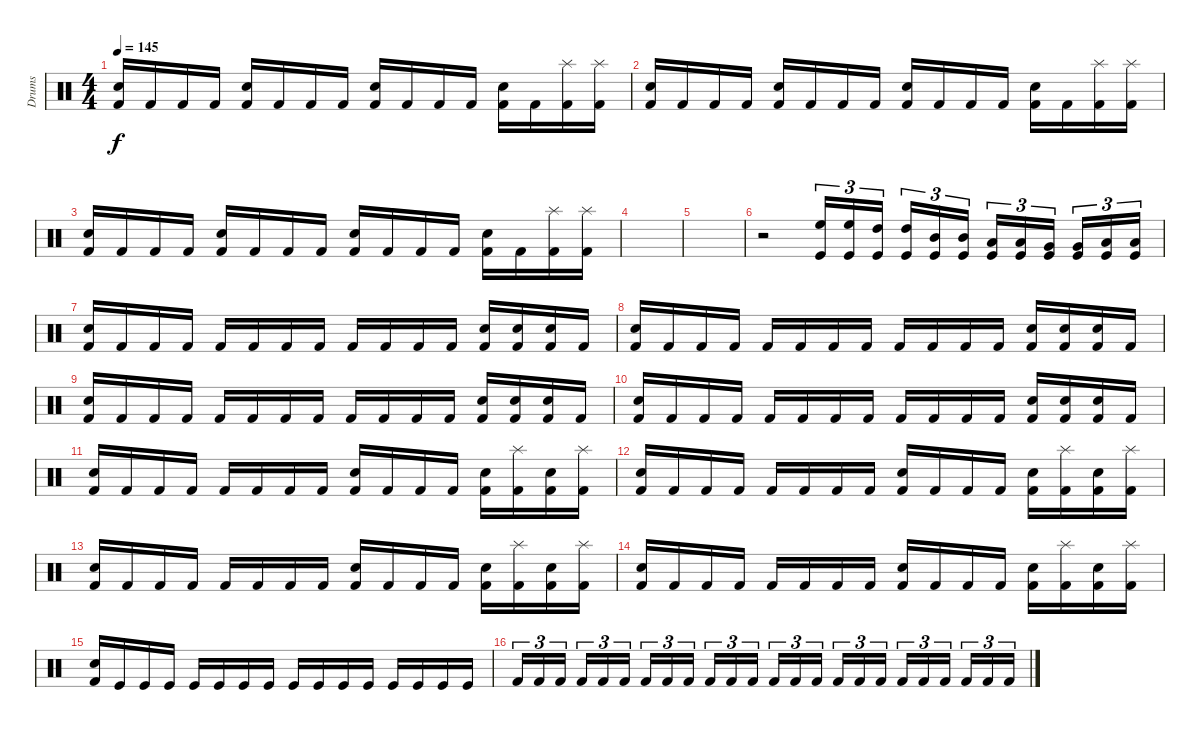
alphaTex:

\track ("Drums" "Drums") {instrument percussion}
\staff {score}
\articulation defaults
\ts (4 4)
\tempo 145
\clef neutral
\ks c
("Electric Snare (hit)" "Kick (hit) 2").16{dy f} "Kick (hit) 2".16 "Kick (hit) 2".16 "Kick (hit) 2".16 ("Electric Snare (hit)" "Kick (hit) 2").16 "Kick (hit) 2".16 "Kick (hit) 2".16 "Kick (hit) 2".16 ("Electric Snare (hit)" "Kick (hit) 2").16 "Kick (hit) 2".16 "Kick (hit) 2".16 "Kick (hit) 2".16 ("Electric Snare (hit)" "Kick (hit) 2").16 "Kick (hit) 2".16 ("Splash (hit)" "Kick (hit) 2").16 ("Splash (hit)" "Kick (hit) 2").16 |
("Electric Snare (hit)" "Kick (hit) 2").16 "Kick (hit) 2".16 "Kick (hit) 2".16 "Kick (hit) 2".16 ("Electric Snare (hit)" "Kick (hit) 2").16 "Kick (hit) 2".16 "Kick (hit) 2".16 "Kick (hit) 2".16 ("Electric Snare (hit)" "Kick (hit) 2").16 "Kick (hit) 2".16 "Kick (hit) 2".16 "Kick (hit) 2".16 ("Electric Snare (hit)" "Kick (hit) 2").16 "Kick (hit) 2".16 ("Splash (hit)" "Kick (hit) 2").16 ("Splash (hit)" "Kick (hit) 2").16 |
("Electric Snare (hit)" "Kick (hit) 2").16 "Kick (hit) 2".16 "Kick (hit) 2".16 "Kick (hit) 2".16 ("Electric Snare (hit)" "Kick (hit) 2").16 "Kick (hit) 2".16 "Kick (hit) 2".16 "Kick (hit) 2".16 ("Electric Snare (hit)" "Kick (hit) 2").16 "Kick (hit) 2".16 "Kick (hit) 2".16 "Kick (hit) 2".16 ("Electric Snare (hit)" "Kick (hit) 2").16 "Kick (hit) 2".16 ("Splash (hit)" "Kick (hit) 2").16 ("Splash (hit)" "Kick (hit) 2").16 |
|
|
r.2 ("High Floor Tom (hit)" "Kick (hit)").16{tu (3 2)} ("High Floor Tom (hit)" "Kick (hit)").16{tu (3 2)} ("High Tom (hit)" "Kick (hit)").16{tu (3 2) beam splitsecondary} ("High Tom (hit)" "Kick (hit)").16{tu (3 2)} ("Mid Tom (hit)" "Kick (hit)").16{tu (3 2)} ("Mid Tom (hit)" "Kick (hit)").16{tu (3 2)} ("Low Tom (hit)" "Kick (hit)").16{tu (3 2)} ("Low Tom (hit)" "Kick (hit)").16{tu (3 2)} ("Very Low Tom (hit)" "Kick (hit)").16{tu (3 2) beam splitsecondary} ("Very Low Tom (hit)" "Kick (hit)").16{tu (3 2)} ("Low Floor Tom (hit)" "Kick (hit)").16{tu (3 2)} ("Low Floor Tom (hit)" "Kick (hit)").16{tu (3 2)} |
("Electric Snare (hit)" "Kick (hit) 2").16 "Kick (hit) 2".16 "Kick (hit) 2".16 "Kick (hit) 2".16 "Kick (hit) 2".16 "Kick (hit) 2".16 "Kick (hit) 2".16 "Kick (hit) 2".16 "Kick (hit) 2".16 "Kick (hit) 2".16 "Kick (hit) 2".16 "Kick (hit) 2".16 ("Electric Snare (hit)" "Kick (hit) 2").16 ("Electric Snare (hit)" "Kick (hit) 2").16 ("Electric Snare (hit)" "Kick (hit) 2").16 "Kick (hit) 2".16 |
("Electric Snare (hit)" "Kick (hit) 2").16 "Kick (hit) 2".16 "Kick (hit) 2".16 "Kick (hit) 2".16 "Kick (hit) 2".16 "Kick (hit) 2".16 "Kick (hit) 2".16 "Kick (hit) 2".16 "Kick (hit) 2".16 "Kick (hit) 2".16 "Kick (hit) 2".16 "Kick (hit) 2".16 ("Electric Snare (hit)" "Kick (hit) 2").16 ("Electric Snare (hit)" "Kick (hit) 2").16 ("Electric Snare (hit)" "Kick (hit) 2").16 "Kick (hit) 2".16 |
("Electric Snare (hit)" "Kick (hit) 2").16 "Kick (hit) 2".16 "Kick (hit) 2".16 "Kick (hit) 2".16 "Kick (hit) 2".16 "Kick (hit) 2".16 "Kick (hit) 2".16 "Kick (hit) 2".16 "Kick (hit) 2".16 "Kick (hit) 2".16 "Kick (hit) 2".16 "Kick (hit) 2".16 ("Electric Snare (hit)" "Kick (hit) 2").16 ("Electric Snare (hit)" "Kick (hit) 2").16 ("Electric Snare (hit)" "Kick (hit) 2").16 "Kick (hit) 2".16 |
("Electric Snare (hit)" "Kick (hit) 2").16 "Kick (hit) 2".16 "Kick (hit) 2".16 "Kick (hit) 2".16 "Kick (hit) 2".16 "Kick (hit) 2".16 "Kick (hit) 2".16 "Kick (hit) 2".16 "Kick (hit) 2".16 "Kick (hit) 2".16 "Kick (hit) 2".16 "Kick (hit) 2".16 ("Electric Snare (hit)" "Kick (hit) 2").16 ("Electric Snare (hit)" "Kick (hit) 2").16 ("Electric Snare (hit)" "Kick (hit) 2").16 "Kick (hit) 2".16 |
("Electric Snare (hit)" "Kick (hit) 2").16 "Kick (hit) 2".16 "Kick (hit) 2".16 "Kick (hit) 2".16 "Kick (hit) 2".16 "Kick (hit) 2".16 "Kick (hit) 2".16 "Kick (hit) 2".16 ("Electric Snare (hit)" "Kick (hit) 2").16 "Kick (hit) 2".16 "Kick (hit) 2".16 "Kick (hit) 2".16 ("Electric Snare (hit)" "Kick (hit) 2").16 ("Splash (hit)" "Kick (hit) 2").16 ("Electric Snare (hit)" "Kick (hit) 2").16 ("Splash (hit)" "Kick (hit) 2").16 |
("Electric Snare (hit)" "Kick (hit) 2").16 "Kick (hit) 2".16 "Kick (hit) 2".16 "Kick (hit) 2".16 "Kick (hit) 2".16 "Kick (hit) 2".16 "Kick (hit) 2".16 "Kick (hit) 2".16 ("Electric Snare (hit)" "Kick (hit) 2").16 "Kick (hit) 2".16 "Kick (hit) 2".16 "Kick (hit) 2".16 ("Electric Snare (hit)" "Kick (hit) 2").16 ("Splash (hit)" "Kick (hit) 2").16 ("Electric Snare (hit)" "Kick (hit) 2").16 ("Splash (hit)" "Kick (hit) 2").16 |
("Electric Snare (hit)" "Kick (hit) 2").16 "Kick (hit) 2".16 "Kick (hit) 2".16 "Kick (hit) 2".16 "Kick (hit) 2".16 "Kick (hit) 2".16 "Kick (hit) 2".16 "Kick (hit) 2".16 ("Electric Snare (hit)" "Kick (hit) 2").16 "Kick (hit) 2".16 "Kick (hit) 2".16 "Kick (hit) 2".16 ("Electric Snare (hit)" "Kick (hit) 2").16 ("Splash (hit)" "Kick (hit) 2").16 ("Electric Snare (hit)" "Kick (hit) 2").16 ("Splash (hit)" "Kick (hit) 2").16 |
("Electric Snare (hit)" "Kick (hit) 2").16 "Kick (hit) 2".16 "Kick (hit) 2".16 "Kick (hit) 2".16 "Kick (hit) 2".16 "Kick (hit) 2".16 "Kick (hit) 2".16 "Kick (hit) 2".16 ("Electric Snare (hit)" "Kick (hit) 2").16 "Kick (hit) 2".16 "Kick (hit) 2".16 "Kick (hit) 2".16 ("Electric Snare (hit)" "Kick (hit) 2").16 ("Splash (hit)" "Kick (hit) 2").16 ("Electric Snare (hit)" "Kick (hit) 2").16 ("Splash (hit)" "Kick (hit) 2").16 |
("Electric Snare (hit)" "Kick (hit) 2").16 "Kick (hit)".16 "Kick (hit)".16 "Kick (hit)".16 "Kick (hit)".16 "Kick (hit)".16 "Kick (hit)".16 "Kick (hit)".16 "Kick (hit)".16 "Kick (hit)".16 "Kick (hit)".16 "Kick (hit)".16 "Kick (hit)".16 "Kick (hit)".16 "Kick (hit)".16 "Kick (hit)".16 |
"Kick (hit) 2".16{tu (3 2)} "Kick (hit) 2".16{tu (3 2)} "Kick (hit) 2".16{tu (3 2) beam splitsecondary} "Kick (hit) 2".16{tu (3 2)} "Kick (hit) 2".16{tu (3 2)} "Kick (hit) 2".16{tu (3 2)} "Kick (hit) 2".16{tu (3 2)} "Kick (hit) 2".16{tu (3 2)} "Kick (hit) 2".16{tu (3 2) beam splitsecondary} "Kick (hit) 2".16{tu (3 2)} "Kick (hit) 2".16{tu (3 2)} "Kick (hit) 2".16{tu (3 2)} "Kick (hit) 2".16{tu (3 2)} "Kick (hit) 2".16{tu (3 2)} "Kick (hit) 2".16{tu (3 2) beam splitsecondary} "Kick (hit) 2".16{tu (3 2)} "Kick (hit) 2".16{tu (3 2)} "Kick (hit) 2".16{tu (3 2)} "Kick (hit) 2".16{tu (3 2)} "Kick (hit) 2".16{tu (3 2)} "Kick (hit) 2".16{tu (3 2) beam splitsecondary} "Kick (hit) 2".16{tu (3 2)} "Kick (hit) 2".16{tu (3 2)} "Kick (hit) 2".16{tu (3 2)}
